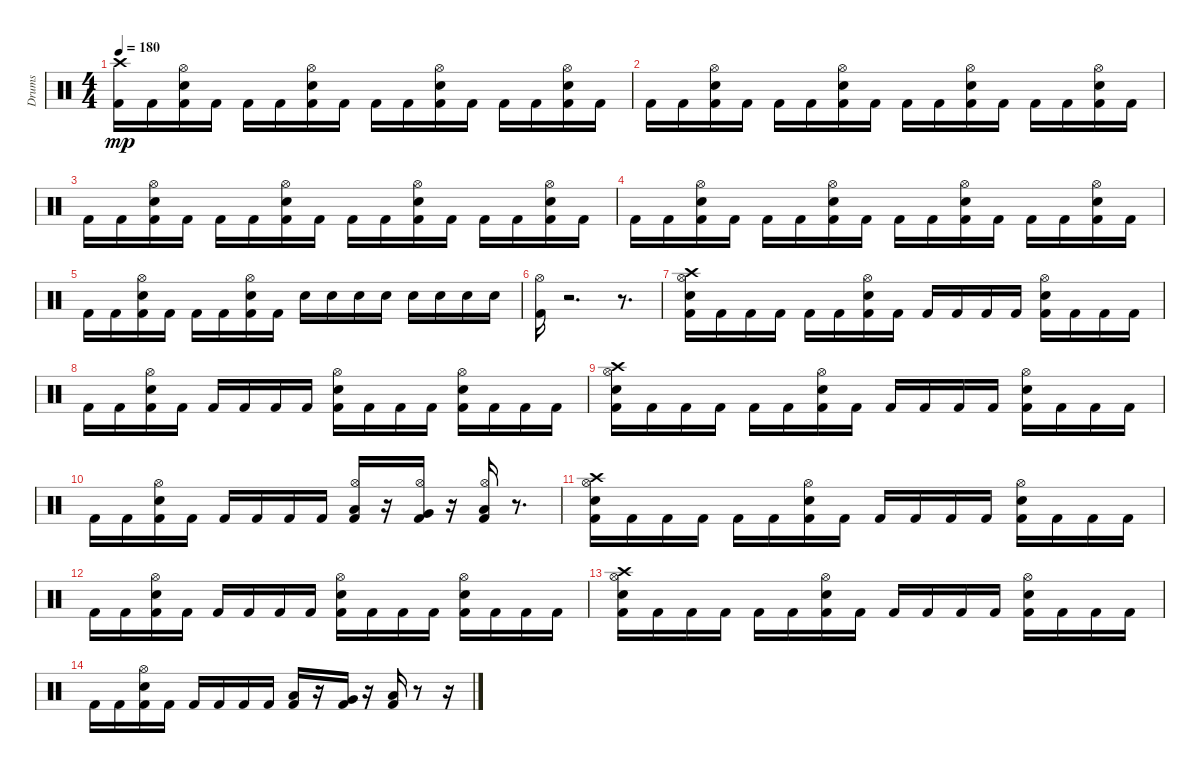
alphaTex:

\track ("Drums" "Drums") {instrument percussion}
\staff {score}
\articulation defaults
\ts (4 4)
\tempo 180
\clef neutral
\ks c
("Crash high (hit)" "Kick (hit) 2").16{dy mp} "Kick (hit) 2".16 ("Electric Snare (hit)" "Kick (hit) 2" "Hi-Hat (open)").16 "Kick (hit) 2".16 "Kick (hit) 2".16 "Kick (hit) 2".16 ("Kick (hit) 2" "Electric Snare (hit)" "Hi-Hat (open)").16 "Kick (hit) 2".16 "Kick (hit) 2".16 "Kick (hit) 2".16 ("Kick (hit) 2" "Hi-Hat (open)" "Electric Snare (hit)").16 "Kick (hit) 2".16 "Kick (hit) 2".16 "Kick (hit) 2".16 ("Electric Snare (hit)" "Kick (hit) 2" "Hi-Hat (open)").16 "Kick (hit) 2".16 |
"Kick (hit) 2".16 "Kick (hit) 2".16 ("Kick (hit) 2" "Electric Snare (hit)" "Hi-Hat (open)").16 "Kick (hit) 2".16 "Kick (hit) 2".16 "Kick (hit) 2".16 ("Electric Snare (hit)" "Hi-Hat (open)" "Kick (hit) 2").16 "Kick (hit) 2".16 "Kick (hit) 2".16 "Kick (hit) 2".16 ("Electric Snare (hit)" "Hi-Hat (open)" "Kick (hit) 2").16 "Kick (hit) 2".16 "Kick (hit) 2".16 "Kick (hit) 2".16 ("Hi-Hat (open)" "Electric Snare (hit)" "Kick (hit) 2").16 "Kick (hit) 2".16 |
"Kick (hit) 2".16 "Kick (hit) 2".16 ("Hi-Hat (open)" "Electric Snare (hit)" "Kick (hit) 2").16 "Kick (hit) 2".16 "Kick (hit) 2".16 "Kick (hit) 2".16 ("Electric Snare (hit)" "Kick (hit) 2" "Hi-Hat (open)").16 "Kick (hit) 2".16 "Kick (hit) 2".16 "Kick (hit) 2".16 ("Electric Snare (hit)" "Kick (hit) 2" "Hi-Hat (open)").16 "Kick (hit) 2".16 "Kick (hit) 2".16 "Kick (hit) 2".16 ("Kick (hit) 2" "Electric Snare (hit)" "Hi-Hat (open)").16 "Kick (hit) 2".16 |
"Kick (hit) 2".16 "Kick (hit) 2".16 ("Electric Snare (hit)" "Hi-Hat (open)" "Kick (hit) 2").16 "Kick (hit) 2".16 "Kick (hit) 2".16 "Kick (hit) 2".16 ("Kick (hit) 2" "Hi-Hat (open)" "Electric Snare (hit)").16 "Kick (hit) 2".16 "Kick (hit) 2".16 "Kick (hit) 2".16 ("Electric Snare (hit)" "Hi-Hat (open)" "Kick (hit) 2").16 "Kick (hit) 2".16 "Kick (hit) 2".16 "Kick (hit) 2".16 ("Hi-Hat (open)" "Electric Snare (hit)" "Kick (hit) 2").16 "Kick (hit) 2".16 |
"Kick (hit) 2".16 "Kick (hit) 2".16 ("Kick (hit) 2" "Hi-Hat (open)" "Electric Snare (hit)").16 "Kick (hit) 2".16 "Kick (hit) 2".16 "Kick (hit) 2".16 ("Hi-Hat (open)" "Electric Snare (hit)" "Kick (hit) 2").16 "Kick (hit) 2".16 "Electric Snare (hit)".16 "Electric Snare (hit)".16 "Electric Snare (hit)".16 "Electric Snare (hit)".16 "Electric Snare (hit)".16 "Electric Snare (hit)".16 "Electric Snare (hit)".16 "Electric Snare (hit)".16 |
("Hi-Hat (open)" "Kick (hit) 2").16 r.2{d} r.8{d} |
("Kick (hit) 2" "Hi-Hat (open)" "Electric Snare (hit)" "Crash high (hit)").16 "Kick (hit) 2".16 "Kick (hit) 2".16 "Kick (hit) 2".16 "Kick (hit) 2".16 "Kick (hit) 2".16 ("Electric Snare (hit)" "Hi-Hat (open)" "Kick (hit) 2").16 "Kick (hit) 2".16 "Kick (hit) 2".16 "Kick (hit) 2".16 "Kick (hit) 2".16 "Kick (hit) 2".16 ("Electric Snare (hit)" "Kick (hit) 2" "Hi-Hat (open)").16 "Kick (hit) 2".16 "Kick (hit) 2".16 "Kick (hit) 2".16 |
"Kick (hit) 2".16 "Kick (hit) 2".16 ("Hi-Hat (open)" "Kick (hit) 2" "Electric Snare (hit)").16 "Kick (hit) 2".16 "Kick (hit) 2".16 "Kick (hit) 2".16 "Kick (hit) 2".16 "Kick (hit) 2".16 ("Hi-Hat (open)" "Electric Snare (hit)" "Kick (hit) 2").16 "Kick (hit) 2".16 "Kick (hit) 2".16 "Kick (hit) 2".16 ("Electric Snare (hit)" "Kick (hit) 2" "Hi-Hat (open)").16 "Kick (hit) 2".16 "Kick (hit) 2".16 "Kick (hit) 2".16 |
("Crash high (hit)" "Kick (hit) 2" "Hi-Hat (open)" "Electric Snare (hit)").16 "Kick (hit) 2".16 "Kick (hit) 2".16 "Kick (hit) 2".16 "Kick (hit) 2".16 "Kick (hit) 2".16 ("Electric Snare (hit)" "Hi-Hat (open)" "Kick (hit) 2").16 "Kick (hit) 2".16 "Kick (hit) 2".16 "Kick (hit) 2".16 "Kick (hit) 2".16 "Kick (hit) 2".16 ("Kick (hit) 2" "Hi-Hat (open)" "Electric Snare (hit)").16 "Kick (hit) 2".16 "Kick (hit) 2".16 "Kick (hit) 2".16 |
"Kick (hit) 2".16 "Kick (hit) 2".16 ("Electric Snare (hit)" "Kick (hit) 2" "Hi-Hat (open)").16 "Kick (hit) 2".16 "Kick (hit) 2".16 "Kick (hit) 2".16 "Kick (hit) 2".16 "Kick (hit) 2".16 ("Kick (hit) 2" "Low Tom (hit)" "Hi-Hat (open)").16 r.16 ("Very Low Tom (hit)" "Hi-Hat (open)" "Kick (hit) 2").16 r.16 ("Hi-Hat (open)" "Low Floor Tom (hit)" "Kick (hit) 2").16 r.8{d} |
("Hi-Hat (open)" "Electric Snare (hit)" "Kick (hit) 2" "Crash high (hit)").16 "Kick (hit) 2".16 "Kick (hit) 2".16 "Kick (hit) 2".16 "Kick (hit) 2".16 "Kick (hit) 2".16 ("Hi-Hat (open)" "Kick (hit) 2" "Electric Snare (hit)").16 "Kick (hit) 2".16 "Kick (hit) 2".16 "Kick (hit) 2".16 "Kick (hit) 2".16 "Kick (hit) 2".16 ("Hi-Hat (open)" "Electric Snare (hit)" "Kick (hit) 2").16 "Kick (hit) 2".16 "Kick (hit) 2".16 "Kick (hit) 2".16 |
"Kick (hit) 2".16 "Kick (hit) 2".16 ("Electric Snare (hit)" "Hi-Hat (open)" "Kick (hit) 2").16 "Kick (hit) 2".16 "Kick (hit) 2".16 "Kick (hit) 2".16 "Kick (hit) 2".16 "Kick (hit) 2".16 ("Electric Snare (hit)" "Kick (hit) 2" "Hi-Hat (open)").16 "Kick (hit) 2".16 "Kick (hit) 2".16 "Kick (hit) 2".16 ("Hi-Hat (open)" "Electric Snare (hit)" "Kick (hit) 2").16 "Kick (hit) 2".16 "Kick (hit) 2".16 "Kick (hit) 2".16 |
("Hi-Hat (open)" "Kick (hit) 2" "Crash high (hit)" "Electric Snare (hit)").16 "Kick (hit) 2".16 "Kick (hit) 2".16 "Kick (hit) 2".16 "Kick (hit) 2".16 "Kick (hit) 2".16 ("Kick (hit) 2" "Electric Snare (hit)" "Hi-Hat (open)").16 "Kick (hit) 2".16 "Kick (hit) 2".16 "Kick (hit) 2".16 "Kick (hit) 2".16 "Kick (hit) 2".16 ("Electric Snare (hit)" "Kick (hit) 2" "Hi-Hat (open)").16 "Kick (hit) 2".16 "Kick (hit) 2".16 "Kick (hit) 2".16 |
"Kick (hit) 2".16 "Kick (hit) 2".16 ("Electric Snare (hit)" "Hi-Hat (open)" "Kick (hit) 2").16 "Kick (hit) 2".16 "Kick (hit) 2".16 "Kick (hit) 2".16 "Kick (hit) 2".16 "Kick (hit) 2".16 ("Kick (hit) 2" "Low Tom (hit)").16 r.16 ("Kick (hit) 2" "Very Low Tom (hit)").16 r.16 ("Low Floor Tom (hit)" "Kick (hit) 2").16 r.8 r.16
